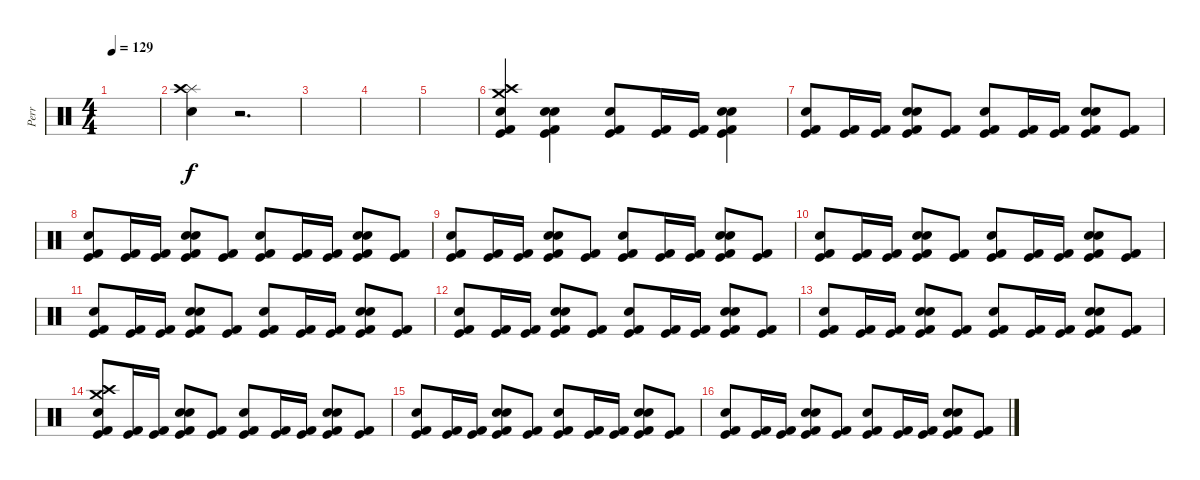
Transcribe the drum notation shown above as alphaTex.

\track ("Perr" "Perr") {instrument percussion}
\staff {score}
\articulation defaults
\ts (4 4)
\tempo 129
\clef neutral
\ks c
|
("Splash (hit)" "Electric Snare (hit)" "Crash high (hit)").4 r.2{d} |
|
|
|
("Crash medium (hit)" "Kick (hit) 2" "Crash high (hit)" "Electric Snare (hit)" "Kick (hit)").4 ("Kick (hit)" "Kick (hit) 2" "Hand Clap (hit)" "Electric Snare (hit)").4 ("Kick (hit) 2" "Kick (hit)" "Electric Snare (hit)").8 ("Kick (hit)" "Kick (hit) 2").16 ("Kick (hit)" "Kick (hit) 2").16 ("Kick (hit)" "Kick (hit) 2" "Hand Clap (hit)" "Electric Snare (hit)").4 |
("Kick (hit) 2" "Kick (hit)" "Electric Snare (hit)").8 ("Kick (hit)" "Kick (hit) 2").16 ("Kick (hit)" "Kick (hit) 2").16 ("Kick (hit)" "Kick (hit) 2" "Hand Clap (hit)" "Electric Snare (hit)").8 ("Kick (hit) 2" "Kick (hit)").8 ("Kick (hit) 2" "Kick (hit)" "Electric Snare (hit)").8 ("Kick (hit)" "Kick (hit) 2").16 ("Kick (hit)" "Kick (hit) 2").16 ("Kick (hit)" "Kick (hit) 2" "Hand Clap (hit)" "Electric Snare (hit)").8 ("Kick (hit) 2" "Kick (hit)").8 |
("Kick (hit) 2" "Kick (hit)" "Electric Snare (hit)").8 ("Kick (hit)" "Kick (hit) 2").16 ("Kick (hit)" "Kick (hit) 2").16 ("Kick (hit)" "Kick (hit) 2" "Hand Clap (hit)" "Electric Snare (hit)").8 ("Kick (hit) 2" "Kick (hit)").8 ("Kick (hit) 2" "Kick (hit)" "Electric Snare (hit)").8 ("Kick (hit)" "Kick (hit) 2").16 ("Kick (hit)" "Kick (hit) 2").16 ("Kick (hit)" "Kick (hit) 2" "Hand Clap (hit)" "Electric Snare (hit)").8 ("Kick (hit) 2" "Kick (hit)").8 |
("Kick (hit) 2" "Kick (hit)" "Electric Snare (hit)").8 ("Kick (hit)" "Kick (hit) 2").16 ("Kick (hit)" "Kick (hit) 2").16 ("Kick (hit)" "Kick (hit) 2" "Hand Clap (hit)" "Electric Snare (hit)").8 ("Kick (hit) 2" "Kick (hit)").8 ("Kick (hit) 2" "Kick (hit)" "Electric Snare (hit)").8 ("Kick (hit)" "Kick (hit) 2").16 ("Kick (hit)" "Kick (hit) 2").16 ("Kick (hit)" "Kick (hit) 2" "Hand Clap (hit)" "Electric Snare (hit)").8 ("Kick (hit) 2" "Kick (hit)").8 |
("Kick (hit) 2" "Kick (hit)" "Electric Snare (hit)").8 ("Kick (hit)" "Kick (hit) 2").16 ("Kick (hit)" "Kick (hit) 2").16 ("Kick (hit)" "Kick (hit) 2" "Hand Clap (hit)" "Electric Snare (hit)").8 ("Kick (hit) 2" "Kick (hit)").8 ("Kick (hit) 2" "Kick (hit)" "Electric Snare (hit)").8 ("Kick (hit)" "Kick (hit) 2").16 ("Kick (hit)" "Kick (hit) 2").16 ("Kick (hit)" "Kick (hit) 2" "Hand Clap (hit)" "Electric Snare (hit)").8 ("Kick (hit) 2" "Kick (hit)").8 |
("Kick (hit) 2" "Kick (hit)" "Electric Snare (hit)").8 ("Kick (hit)" "Kick (hit) 2").16 ("Kick (hit)" "Kick (hit) 2").16 ("Kick (hit)" "Kick (hit) 2" "Hand Clap (hit)" "Electric Snare (hit)").8 ("Kick (hit) 2" "Kick (hit)").8 ("Kick (hit) 2" "Kick (hit)" "Electric Snare (hit)").8 ("Kick (hit)" "Kick (hit) 2").16 ("Kick (hit)" "Kick (hit) 2").16 ("Kick (hit)" "Kick (hit) 2" "Hand Clap (hit)" "Electric Snare (hit)").8 ("Kick (hit) 2" "Kick (hit)").8 |
("Kick (hit) 2" "Kick (hit)" "Electric Snare (hit)").8 ("Kick (hit)" "Kick (hit) 2").16 ("Kick (hit)" "Kick (hit) 2").16 ("Kick (hit)" "Kick (hit) 2" "Hand Clap (hit)" "Electric Snare (hit)").8 ("Kick (hit) 2" "Kick (hit)").8 ("Kick (hit) 2" "Kick (hit)" "Electric Snare (hit)").8 ("Kick (hit)" "Kick (hit) 2").16 ("Kick (hit)" "Kick (hit) 2").16 ("Kick (hit)" "Kick (hit) 2" "Hand Clap (hit)" "Electric Snare (hit)").8 ("Kick (hit) 2" "Kick (hit)").8 |
("Kick (hit) 2" "Kick (hit)" "Electric Snare (hit)").8 ("Kick (hit)" "Kick (hit) 2").16 ("Kick (hit)" "Kick (hit) 2").16 ("Kick (hit)" "Kick (hit) 2" "Hand Clap (hit)" "Electric Snare (hit)").8 ("Kick (hit) 2" "Kick (hit)").8 ("Kick (hit) 2" "Kick (hit)" "Electric Snare (hit)").8 ("Kick (hit)" "Kick (hit) 2").16 ("Kick (hit)" "Kick (hit) 2").16 ("Kick (hit)" "Kick (hit) 2" "Hand Clap (hit)" "Electric Snare (hit)").8 ("Kick (hit) 2" "Kick (hit)").8 |
("Kick (hit) 2" "Kick (hit)" "Electric Snare (hit)" "Crash medium (hit)" "Crash high (hit)").8 ("Kick (hit)" "Kick (hit) 2").16 ("Kick (hit)" "Kick (hit) 2").16 ("Kick (hit)" "Kick (hit) 2" "Hand Clap (hit)" "Electric Snare (hit)").8 ("Kick (hit) 2" "Kick (hit)").8 ("Kick (hit) 2" "Kick (hit)" "Electric Snare (hit)").8 ("Kick (hit)" "Kick (hit) 2").16 ("Kick (hit)" "Kick (hit) 2").16 ("Kick (hit)" "Kick (hit) 2" "Hand Clap (hit)" "Electric Snare (hit)").8 ("Kick (hit) 2" "Kick (hit)").8 |
("Kick (hit) 2" "Kick (hit)" "Electric Snare (hit)").8 ("Kick (hit)" "Kick (hit) 2").16 ("Kick (hit)" "Kick (hit) 2").16 ("Kick (hit)" "Kick (hit) 2" "Hand Clap (hit)" "Electric Snare (hit)").8 ("Kick (hit) 2" "Kick (hit)").8 ("Kick (hit) 2" "Kick (hit)" "Electric Snare (hit)").8 ("Kick (hit)" "Kick (hit) 2").16 ("Kick (hit)" "Kick (hit) 2").16 ("Kick (hit)" "Kick (hit) 2" "Hand Clap (hit)" "Electric Snare (hit)").8 ("Kick (hit) 2" "Kick (hit)").8 |
("Kick (hit) 2" "Kick (hit)" "Electric Snare (hit)").8 ("Kick (hit)" "Kick (hit) 2").16 ("Kick (hit)" "Kick (hit) 2").16 ("Kick (hit)" "Kick (hit) 2" "Hand Clap (hit)" "Electric Snare (hit)").8 ("Kick (hit) 2" "Kick (hit)").8 ("Kick (hit) 2" "Kick (hit)" "Electric Snare (hit)").8 ("Kick (hit)" "Kick (hit) 2").16 ("Kick (hit)" "Kick (hit) 2").16 ("Kick (hit)" "Kick (hit) 2" "Hand Clap (hit)" "Electric Snare (hit)").8 ("Kick (hit) 2" "Kick (hit)").8
